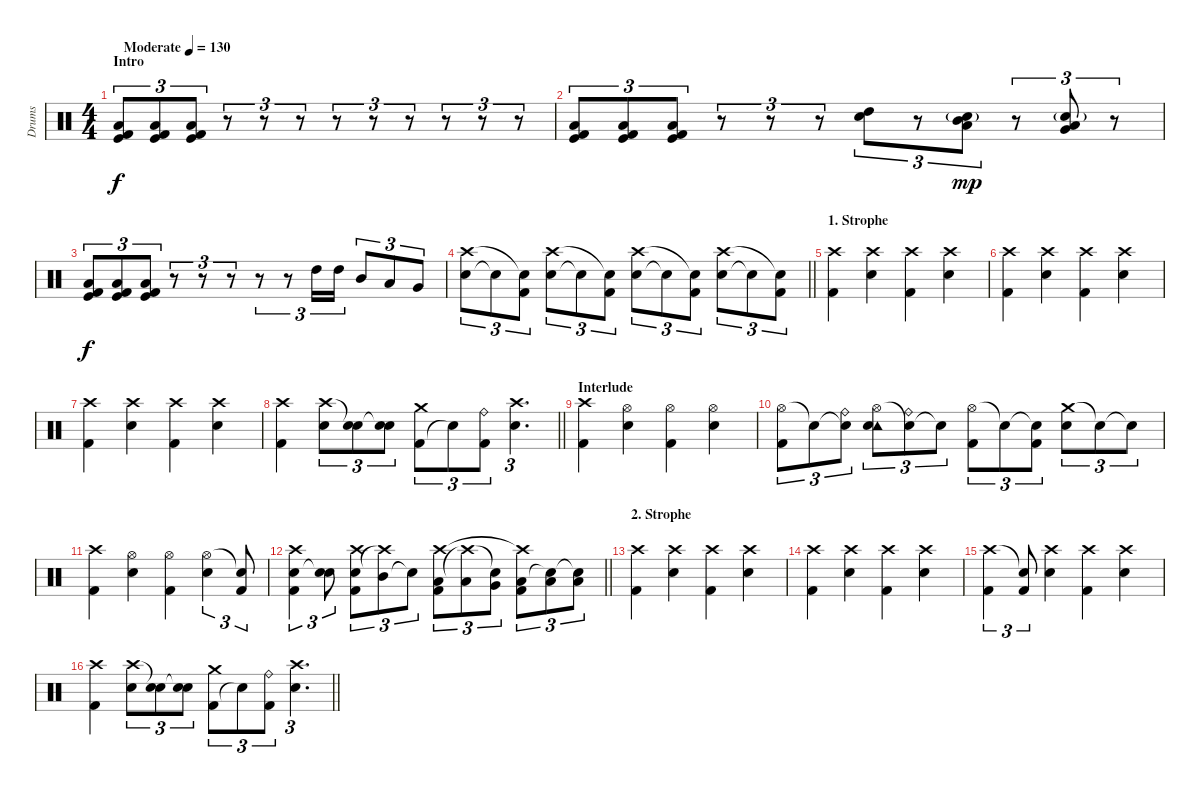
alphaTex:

\track ("Drums" "Drums") {instrument percussion}
\staff {score}
\articulation defaults
\ts (4 4)
\section ("" "Intro")
\tempo (130 "Moderate")
\clef neutral
\ks c
("Low Floor Tom (hit)" "Kick (hit) 2" "Kick (hit)").8{tu (3 2) dy f} ("Low Floor Tom (hit)" "Kick (hit) 2" "Kick (hit)").8{tu (3 2)} ("Low Floor Tom (hit)" "Kick (hit) 2" "Kick (hit)").8{tu (3 2)} r.8{tu (3 2)} r.8{tu (3 2)} r.8{tu (3 2)} r.8{tu (3 2)} r.8{tu (3 2)} r.8{tu (3 2)} r.8{tu (3 2)} r.8{tu (3 2)} r.8{tu (3 2)} |
("Low Floor Tom (hit)" "Kick (hit) 2" "Kick (hit)").8{tu (3 2)} ("Low Floor Tom (hit)" "Kick (hit) 2" "Kick (hit)").8{tu (3 2)} ("Low Floor Tom (hit)" "Kick (hit) 2" "Kick (hit)").8{tu (3 2)} r.8{tu (3 2)} r.8{tu (3 2)} r.8{tu (3 2)} ("High Tom (hit)" "Electric Snare (hit)").8{tu (3 2)} r.8{tu (3 2)} ("Mid Tom (hit)" "Low Tom (hit)" "Electric Snare (hit)"{g}).8{tu (3 2) dy mp} r.8{tu (3 2)} ("Low Tom (hit)" "Very Low Tom (hit)" "Electric Snare (hit)"{g}).8{tu (3 2)} r.8{tu (3 2)} |
("Low Floor Tom (hit)" "Kick (hit) 2" "Kick (hit)").8{tu (3 2) dy f} ("Low Floor Tom (hit)" "Kick (hit) 2" "Kick (hit)").8{tu (3 2)} ("Low Floor Tom (hit)" "Kick (hit) 2" "Kick (hit)").8{tu (3 2)} r.8{tu (3 2)} r.8{tu (3 2)} r.8{tu (3 2)} r.8{tu (3 2)} r.8{tu (3 2)} "High Tom (hit)".16{tu (3 2)} "High Tom (hit)".16{tu (3 2)} "Mid Tom (hit)".8{tu (3 2)} "Low Tom (hit)".8{tu (3 2)} "Very Low Tom (hit)".8{tu (3 2)} |
\barLineRight lightlight
("Snare (hit) 2" "Crash high (hit)").8{tu (3 2)} "Snare (hit)"{t}.8{tu (3 2)} ("Kick (hit) 2" "Snare (hit)"{t}).8{tu (3 2)} ("Snare (hit) 2" "Crash high (hit)").8{tu (3 2)} "Snare (hit)"{t}.8{tu (3 2)} ("Kick (hit) 2" "Snare (hit)"{t}).8{tu (3 2)} ("Snare (hit) 2" "Crash high (hit)").8{tu (3 2)} "Snare (hit)"{t}.8{tu (3 2)} ("Kick (hit) 2" "Snare (hit)"{t}).8{tu (3 2)} ("Snare (hit) 2" "Crash high (hit)").8{tu (3 2)} "Snare (hit)"{t}.8{tu (3 2)} ("Kick (hit) 2" "Snare (hit)"{t}).8{tu (3 2)} |
\section ("" "1. Strophe")
("Kick (hit) 2" "Crash high (hit)").4 ("Snare (hit) 2" "Crash high (hit)").4 ("Kick (hit) 2" "Crash high (hit)").4 ("Snare (hit) 2" "Crash high (hit)").4 |
("Kick (hit) 2" "Crash high (hit)").4 ("Snare (hit) 2" "Crash high (hit)").4 ("Kick (hit) 2" "Crash high (hit)").4 ("Snare (hit) 2" "Crash high (hit)").4 |
("Kick (hit) 2" "Crash high (hit)").4 ("Snare (hit) 2" "Crash high (hit)").4 ("Kick (hit) 2" "Crash high (hit)").4 ("Snare (hit) 2" "Crash high (hit)").4 |
\barLineRight lightlight
("Kick (hit) 2" "Crash high (hit)").4 ("Snare (hit) 2" "Crash high (hit)").8{tu (3 2)} ("Snare (hit) 2" "Snare (hit)"{t}).8{tu (3 2)} ("Snare (hit) 2" "Snare (hit)"{t}).8{tu (3 2)} ("Kick (hit) 2" "Crash medium (hit)").8{tu (3 2)} "Snare (hit)"{t}.8{tu (3 2)} ("Kick (hit) 2" "Ride (bell)").8{tu (3 2)} ("Snare (hit) 2" "Crash high (hit)").4{d tu (3 2)} |
\section ("" "Interlude")
("Kick (hit) 2" "Crash high (hit)").4 ("Snare (hit) 2" "Hi-Hat (open)").4 ("Kick (hit) 2" "Hi-Hat (open)").4 ("Snare (hit) 2" "Hi-Hat (open)").4 |
("Hi-Hat (open)" "Kick (hit) 2").8{tu (3 2)} "Snare (hit)"{t}.8{tu (3 2)} ("Snare (hit)"{t} "Ride (bell)").8{tu (3 2)} ("Hi-Hat (open)" "Tambourine (hit)" "Snare (hit) 2").8{tu (3 2)} ("Snare (hit)"{t} "Ride (bell)").8{tu (3 2)} "Snare (hit)"{t}.8{tu (3 2)} ("Hi-Hat (open)" "Kick (hit) 2").8{tu (3 2)} "Snare (hit)"{t}.8{tu (3 2)} ("Snare (hit)"{t} "Kick (hit) 2").8{tu (3 2)} ("Crash medium (hit)" "Snare (hit) 2").8{tu (3 2)} "Snare (hit)"{t}.8{tu (3 2)} "Snare (hit)"{t}.8{tu (3 2)} |
("Kick (hit) 2" "Crash high (hit)").4 ("Snare (hit) 2" "Hi-Hat (open)").4 ("Kick (hit) 2" "Hi-Hat (open)").4 ("Snare (hit) 2" "Hi-Hat (open)").4{tu (3 2)} ("Kick (hit) 2" "Snare (hit)"{t}).8{tu (3 2)} |
\barLineRight lightlight
("Kick (hit) 2" "Electric Snare (hit)" "Crash high (hit)").4{tu (3 2)} ("Electric Snare (hit)" "Snare (hit)"{t}).8{tu (3 2)} ("Kick (hit) 2" "Electric Snare (hit)" "Crash high (hit)").8{tu (3 2)} ("Mid Tom (hit)" "Crash high (hit)"{t}).8{tu (3 2)} "Snare (hit)"{t}.8{tu (3 2)} ("Kick (hit) 2" "Low Tom (hit)" "Crash high (hit)").8{tu (3 2)} ("Low Tom (hit)" "Crash high (hit)"{t}).8{tu (3 2)} ("Very Low Tom (hit)" "Snare (hit)"{t}).8{tu (3 2)} ("Kick (hit) 2" "Low Floor Tom (hit)" "Crash high (hit)"{t}).8{tu (3 2)} ("Low Floor Tom (hit)" "Snare (hit)"{t}).8{tu (3 2)} ("Low Floor Tom (hit)" "Snare (hit)"{t}).8{tu (3 2)} |
\section ("" "2. Strophe")
("Kick (hit) 2" "Crash high (hit)").4 ("Snare (hit) 2" "Crash high (hit)").4 ("Kick (hit) 2" "Crash high (hit)").4 ("Snare (hit) 2" "Crash high (hit)").4 |
("Kick (hit) 2" "Crash high (hit)").4 ("Snare (hit) 2" "Crash high (hit)").4 ("Kick (hit) 2" "Crash high (hit)").4 ("Snare (hit) 2" "Crash high (hit)").4 |
("Kick (hit) 2" "Crash high (hit)").4{tu (3 2)} ("Kick (hit) 2" "Snare (hit)"{t}).8{tu (3 2)} ("Snare (hit) 2" "Crash high (hit)").4 ("Kick (hit) 2" "Crash high (hit)").4 ("Snare (hit) 2" "Crash high (hit)").4 |
\barLineRight lightlight
("Kick (hit) 2" "Crash high (hit)").4 ("Snare (hit) 2" "Crash high (hit)").8{tu (3 2)} ("Snare (hit) 2" "Snare (hit)"{t}).8{tu (3 2)} ("Snare (hit) 2" "Snare (hit)"{t}).8{tu (3 2)} ("Kick (hit) 2" "Crash medium (hit)").8{tu (3 2)} "Snare (hit)"{t}.8{tu (3 2)} ("Kick (hit) 2" "Ride (bell)").8{tu (3 2)} ("Snare (hit) 2" "Crash high (hit)").4{d tu (3 2)}
